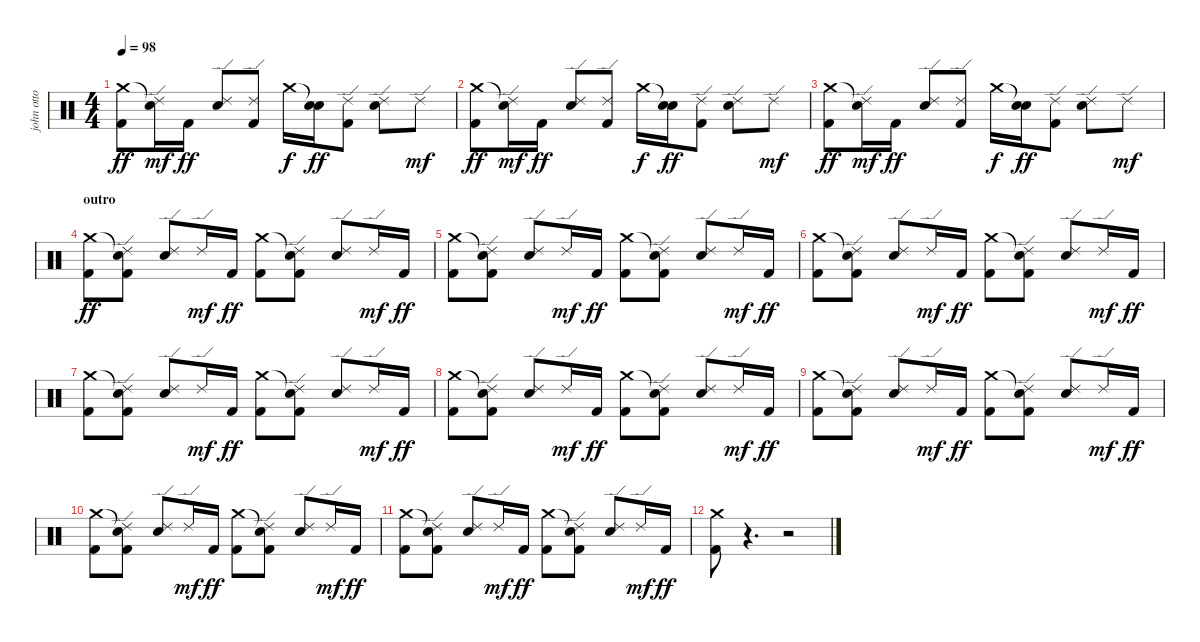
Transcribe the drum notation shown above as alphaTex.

\track ("john otto" "john otto") {instrument percussion}
\staff {score}
\articulation defaults
\ts (4 4)
\tempo 98
\clef neutral
\ks c
("Crash medium (hit)" "Kick (hit) 2").8{dy ff} ("Snare (hit)"{t} "Ride (edge) 2").16{dy mf} "Kick (hit) 2".16{dy ff} ("Ride (edge) 2" "Snare (hit) 2").8 ("Ride (edge) 2" "Kick (hit) 2").8 "Crash medium (hit)".16{dy f} ("Snare (hit)"{t} "Snare (hit) 2").16{dy ff} ("Ride (edge) 2" "Kick (hit) 2").8 ("Ride (edge) 2" "Snare (hit) 2").8 "Ride (edge) 2".8{dy mf} |
("Crash medium (hit)" "Kick (hit) 2").8{dy ff} ("Snare (hit)"{t} "Ride (edge) 2").16{dy mf} "Kick (hit) 2".16{dy ff} ("Ride (edge) 2" "Snare (hit) 2").8 ("Ride (edge) 2" "Kick (hit) 2").8 "Crash medium (hit)".16{dy f} ("Snare (hit)"{t} "Snare (hit) 2").16{dy ff} ("Ride (edge) 2" "Kick (hit) 2").8 ("Ride (edge) 2" "Snare (hit) 2").8 "Ride (edge) 2".8{dy mf} |
("Crash medium (hit)" "Kick (hit) 2").8{dy ff} ("Snare (hit)"{t} "Ride (edge) 2").16{dy mf} "Kick (hit) 2".16{dy ff} ("Ride (edge) 2" "Snare (hit) 2").8 ("Ride (edge) 2" "Kick (hit) 2").8 "Crash medium (hit)".16{dy f} ("Snare (hit)"{t} "Snare (hit) 2").16{dy ff} ("Ride (edge) 2" "Kick (hit) 2").8 ("Ride (edge) 2" "Snare (hit) 2").8 "Ride (edge) 2".8{dy mf} |
\section ("" "outro")
("Crash medium (hit)" "Kick (hit) 2").8{dy ff} ("Snare (hit)"{t} "Ride (edge) 2" "Kick (hit) 2").8 ("Ride (edge) 2" "Snare (hit) 2").8 "Ride (edge) 2".16{dy mf} "Kick (hit) 2".16{dy ff} ("Crash medium (hit)" "Kick (hit) 2").8 ("Snare (hit)"{t} "Ride (edge) 2" "Kick (hit) 2").8 ("Ride (edge) 2" "Snare (hit) 2").8 "Ride (edge) 2".16{dy mf} "Kick (hit) 2".16{dy ff} |
("Crash medium (hit)" "Kick (hit) 2").8 ("Snare (hit)"{t} "Ride (edge) 2" "Kick (hit) 2").8 ("Ride (edge) 2" "Snare (hit) 2").8 "Ride (edge) 2".16{dy mf} "Kick (hit) 2".16{dy ff} ("Crash medium (hit)" "Kick (hit) 2").8 ("Snare (hit)"{t} "Ride (edge) 2" "Kick (hit) 2").8 ("Ride (edge) 2" "Snare (hit) 2").8 "Ride (edge) 2".16{dy mf} "Kick (hit) 2".16{dy ff} |
("Crash medium (hit)" "Kick (hit) 2").8 ("Snare (hit)"{t} "Ride (edge) 2" "Kick (hit) 2").8 ("Ride (edge) 2" "Snare (hit) 2").8 "Ride (edge) 2".16{dy mf} "Kick (hit) 2".16{dy ff} ("Crash medium (hit)" "Kick (hit) 2").8 ("Snare (hit)"{t} "Ride (edge) 2" "Kick (hit) 2").8 ("Ride (edge) 2" "Snare (hit) 2").8 "Ride (edge) 2".16{dy mf} "Kick (hit) 2".16{dy ff} |
("Crash medium (hit)" "Kick (hit) 2").8 ("Snare (hit)"{t} "Ride (edge) 2" "Kick (hit) 2").8 ("Ride (edge) 2" "Snare (hit) 2").8 "Ride (edge) 2".16{dy mf} "Kick (hit) 2".16{dy ff} ("Crash medium (hit)" "Kick (hit) 2").8 ("Snare (hit)"{t} "Ride (edge) 2" "Kick (hit) 2").8 ("Ride (edge) 2" "Snare (hit) 2").8 "Ride (edge) 2".16{dy mf} "Kick (hit) 2".16{dy ff} |
("Crash medium (hit)" "Kick (hit) 2").8 ("Snare (hit)"{t} "Ride (edge) 2" "Kick (hit) 2").8 ("Ride (edge) 2" "Snare (hit) 2").8 "Ride (edge) 2".16{dy mf} "Kick (hit) 2".16{dy ff} ("Crash medium (hit)" "Kick (hit) 2").8 ("Snare (hit)"{t} "Ride (edge) 2" "Kick (hit) 2").8 ("Ride (edge) 2" "Snare (hit) 2").8 "Ride (edge) 2".16{dy mf} "Kick (hit) 2".16{dy ff} |
("Crash medium (hit)" "Kick (hit) 2").8 ("Snare (hit)"{t} "Ride (edge) 2" "Kick (hit) 2").8 ("Ride (edge) 2" "Snare (hit) 2").8 "Ride (edge) 2".16{dy mf} "Kick (hit) 2".16{dy ff} ("Crash medium (hit)" "Kick (hit) 2").8 ("Snare (hit)"{t} "Ride (edge) 2" "Kick (hit) 2").8 ("Ride (edge) 2" "Snare (hit) 2").8 "Ride (edge) 2".16{dy mf} "Kick (hit) 2".16{dy ff} |
("Crash medium (hit)" "Kick (hit) 2").8 ("Snare (hit)"{t} "Ride (edge) 2" "Kick (hit) 2").8 ("Ride (edge) 2" "Snare (hit) 2").8 "Ride (edge) 2".16{dy mf} "Kick (hit) 2".16{dy ff} ("Crash medium (hit)" "Kick (hit) 2").8 ("Snare (hit)"{t} "Ride (edge) 2" "Kick (hit) 2").8 ("Ride (edge) 2" "Snare (hit) 2").8 "Ride (edge) 2".16{dy mf} "Kick (hit) 2".16{dy ff} |
("Crash medium (hit)" "Kick (hit) 2").8 ("Snare (hit)"{t} "Ride (edge) 2" "Kick (hit) 2").8 ("Ride (edge) 2" "Snare (hit) 2").8 "Ride (edge) 2".16{dy mf} "Kick (hit) 2".16{dy ff} ("Crash medium (hit)" "Kick (hit) 2").8 ("Snare (hit)"{t} "Ride (edge) 2" "Kick (hit) 2").8 ("Ride (edge) 2" "Snare (hit) 2").8 "Ride (edge) 2".16{dy mf} "Kick (hit) 2".16{dy ff} |
("Crash medium (hit)" "Kick (hit) 2").8 r.4{d} r.2
